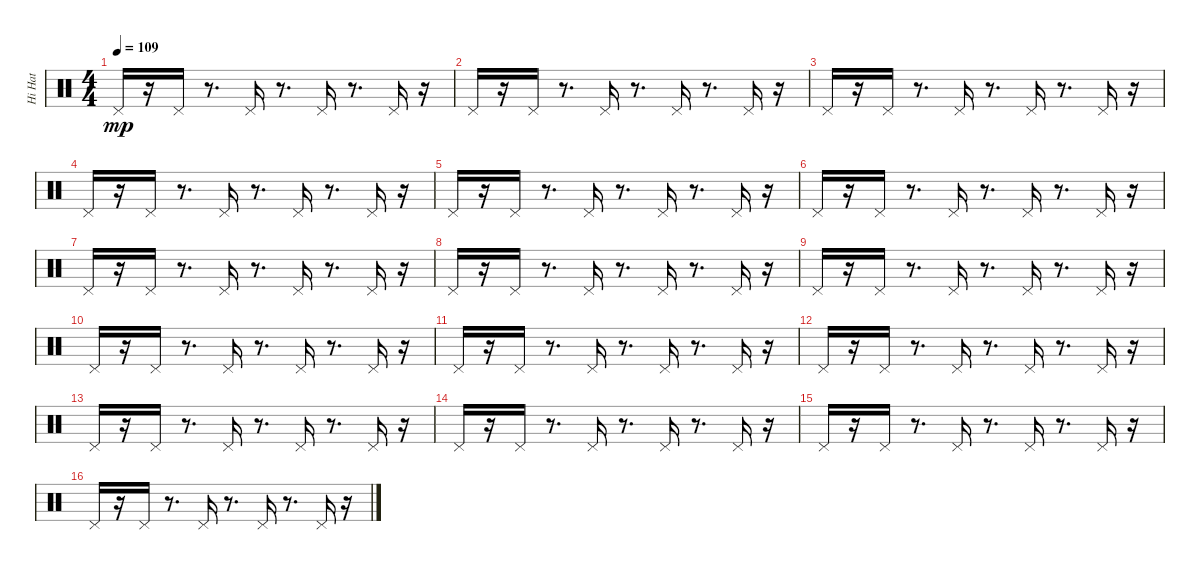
\track ("Hi Hat" "Hi Hat") {instrument percussion}
\staff {score}
\articulation defaults
\ts (4 4)
\tempo 109
\clef neutral
\ks c "Pedal Hi-Hat (hit)".16{dy mp}
r.16 "Pedal Hi-Hat (hit)".16 r.8{d} "Pedal Hi-Hat (hit)".16 r.8{d} "Pedal Hi-Hat (hit)".16 r.8{d} "Pedal Hi-Hat (hit)".16 r.16 |
"Pedal Hi-Hat (hit)".16 r.16 "Pedal Hi-Hat (hit)".16 r.8{d} "Pedal Hi-Hat (hit)".16 r.8{d} "Pedal Hi-Hat (hit)".16 r.8{d} "Pedal Hi-Hat (hit)".16 r.16 |
"Pedal Hi-Hat (hit)".16 r.16 "Pedal Hi-Hat (hit)".16 r.8{d} "Pedal Hi-Hat (hit)".16 r.8{d} "Pedal Hi-Hat (hit)".16 r.8{d} "Pedal Hi-Hat (hit)".16 r.16 |
"Pedal Hi-Hat (hit)".16 r.16 "Pedal Hi-Hat (hit)".16 r.8{d} "Pedal Hi-Hat (hit)".16 r.8{d} "Pedal Hi-Hat (hit)".16 r.8{d} "Pedal Hi-Hat (hit)".16 r.16 |
"Pedal Hi-Hat (hit)".16 r.16 "Pedal Hi-Hat (hit)".16 r.8{d} "Pedal Hi-Hat (hit)".16 r.8{d} "Pedal Hi-Hat (hit)".16 r.8{d} "Pedal Hi-Hat (hit)".16 r.16 |
"Pedal Hi-Hat (hit)".16 r.16 "Pedal Hi-Hat (hit)".16 r.8{d} "Pedal Hi-Hat (hit)".16 r.8{d} "Pedal Hi-Hat (hit)".16 r.8{d} "Pedal Hi-Hat (hit)".16 r.16 |
"Pedal Hi-Hat (hit)".16 r.16 "Pedal Hi-Hat (hit)".16 r.8{d} "Pedal Hi-Hat (hit)".16 r.8{d} "Pedal Hi-Hat (hit)".16 r.8{d} "Pedal Hi-Hat (hit)".16 r.16 |
"Pedal Hi-Hat (hit)".16 r.16 "Pedal Hi-Hat (hit)".16 r.8{d} "Pedal Hi-Hat (hit)".16 r.8{d} "Pedal Hi-Hat (hit)".16 r.8{d} "Pedal Hi-Hat (hit)".16 r.16 |
"Pedal Hi-Hat (hit)".16 r.16 "Pedal Hi-Hat (hit)".16 r.8{d} "Pedal Hi-Hat (hit)".16 r.8{d} "Pedal Hi-Hat (hit)".16 r.8{d} "Pedal Hi-Hat (hit)".16 r.16 |
"Pedal Hi-Hat (hit)".16 r.16 "Pedal Hi-Hat (hit)".16 r.8{d} "Pedal Hi-Hat (hit)".16 r.8{d} "Pedal Hi-Hat (hit)".16 r.8{d} "Pedal Hi-Hat (hit)".16 r.16 |
"Pedal Hi-Hat (hit)".16 r.16 "Pedal Hi-Hat (hit)".16 r.8{d} "Pedal Hi-Hat (hit)".16 r.8{d} "Pedal Hi-Hat (hit)".16 r.8{d} "Pedal Hi-Hat (hit)".16 r.16 |
"Pedal Hi-Hat (hit)".16 r.16 "Pedal Hi-Hat (hit)".16 r.8{d} "Pedal Hi-Hat (hit)".16 r.8{d} "Pedal Hi-Hat (hit)".16 r.8{d} "Pedal Hi-Hat (hit)".16 r.16 |
"Pedal Hi-Hat (hit)".16 r.16 "Pedal Hi-Hat (hit)".16 r.8{d} "Pedal Hi-Hat (hit)".16 r.8{d} "Pedal Hi-Hat (hit)".16 r.8{d} "Pedal Hi-Hat (hit)".16 r.16 |
"Pedal Hi-Hat (hit)".16 r.16 "Pedal Hi-Hat (hit)".16 r.8{d} "Pedal Hi-Hat (hit)".16 r.8{d} "Pedal Hi-Hat (hit)".16 r.8{d} "Pedal Hi-Hat (hit)".16 r.16 |
"Pedal Hi-Hat (hit)".16 r.16 "Pedal Hi-Hat (hit)".16 r.8{d} "Pedal Hi-Hat (hit)".16 r.8{d} "Pedal Hi-Hat (hit)".16 r.8{d} "Pedal Hi-Hat (hit)".16 r.16 |
"Pedal Hi-Hat (hit)".16 r.16 "Pedal Hi-Hat (hit)".16 r.8{d} "Pedal Hi-Hat (hit)".16 r.8{d} "Pedal Hi-Hat (hit)".16 r.8{d} "Pedal Hi-Hat (hit)".16 r.16
